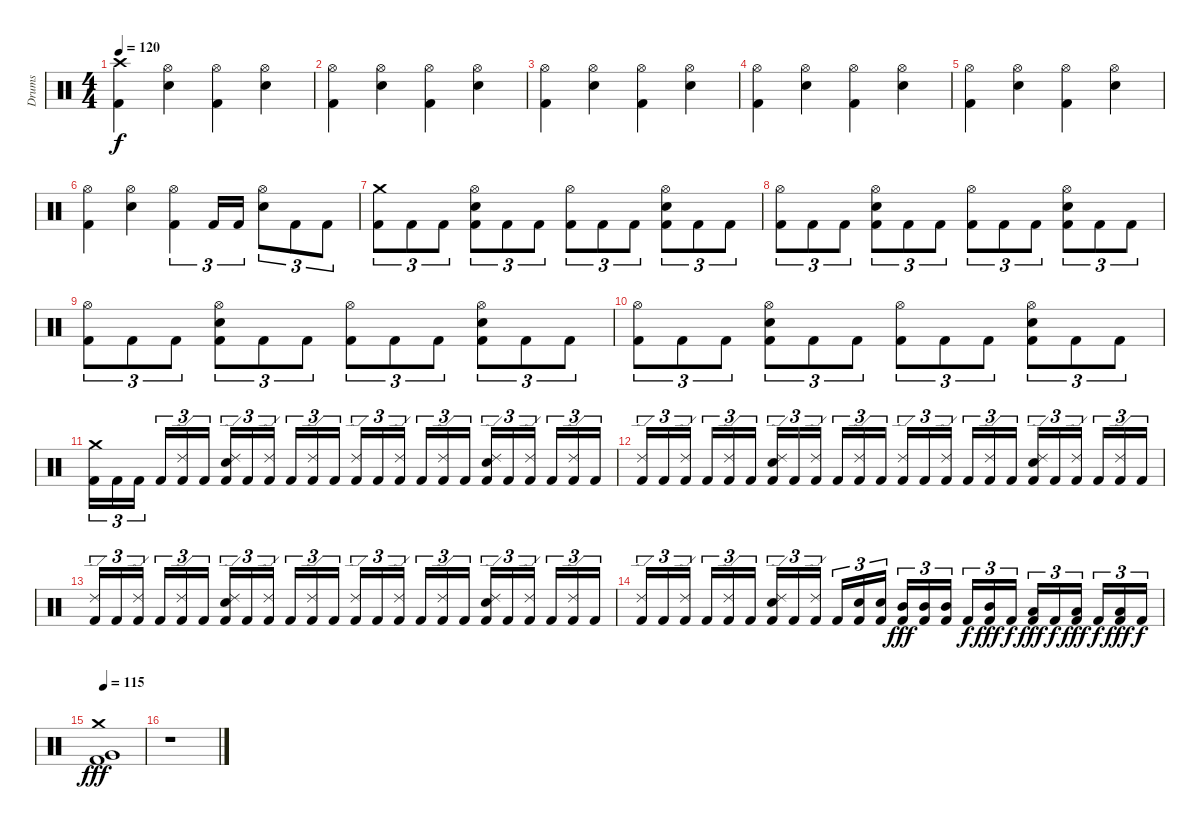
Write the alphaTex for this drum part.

\track ("Drums" "Drums") {instrument percussion}
\staff {score}
\articulation defaults
\ts (4 4)
\tempo 120
\clef neutral
\ks c
("Kick (hit) 2" "Crash high (hit)").4{dy f} ("Electric Snare (hit)" "Hi-Hat (open)").4 ("Kick (hit) 2" "Hi-Hat (open)").4 ("Electric Snare (hit)" "Hi-Hat (open)").4 |
("Kick (hit) 2" "Hi-Hat (open)").4 ("Electric Snare (hit)" "Hi-Hat (open)").4 ("Kick (hit) 2" "Hi-Hat (open)").4 ("Electric Snare (hit)" "Hi-Hat (open)").4 |
("Kick (hit) 2" "Hi-Hat (open)").4 ("Electric Snare (hit)" "Hi-Hat (open)").4 ("Kick (hit) 2" "Hi-Hat (open)").4 ("Electric Snare (hit)" "Hi-Hat (open)").4 |
("Kick (hit) 2" "Hi-Hat (open)").4 ("Electric Snare (hit)" "Hi-Hat (open)").4 ("Kick (hit) 2" "Hi-Hat (open)").4 ("Electric Snare (hit)" "Hi-Hat (open)").4 |
("Kick (hit) 2" "Hi-Hat (open)").4 ("Electric Snare (hit)" "Hi-Hat (open)").4 ("Kick (hit) 2" "Hi-Hat (open)").4 ("Electric Snare (hit)" "Hi-Hat (open)").4 |
("Kick (hit) 2" "Hi-Hat (open)").4 ("Electric Snare (hit)" "Hi-Hat (open)").4 ("Kick (hit) 2" "Hi-Hat (open)").4{tu (3 2)} "Kick (hit) 2".16{tu (3 2)} "Kick (hit) 2".16{tu (3 2)} ("Electric Snare (hit)" "Hi-Hat (open)").8{tu (3 2)} "Kick (hit) 2".8{tu (3 2)} "Kick (hit) 2".8{tu (3 2)} |
("Kick (hit) 2" "Crash medium (hit)").8{tu (3 2)} "Kick (hit) 2".8{tu (3 2)} "Kick (hit) 2".8{tu (3 2)} ("Kick (hit) 2" "Electric Snare (hit)" "Hi-Hat (open)").8{tu (3 2)} "Kick (hit) 2".8{tu (3 2)} "Kick (hit) 2".8{tu (3 2)} ("Kick (hit) 2" "Hi-Hat (open)").8{tu (3 2)} "Kick (hit) 2".8{tu (3 2)} "Kick (hit) 2".8{tu (3 2)} ("Kick (hit) 2" "Electric Snare (hit)" "Hi-Hat (open)").8{tu (3 2)} "Kick (hit) 2".8{tu (3 2)} "Kick (hit) 2".8{tu (3 2)} |
("Kick (hit) 2" "Hi-Hat (open)").8{tu (3 2)} "Kick (hit) 2".8{tu (3 2)} "Kick (hit) 2".8{tu (3 2)} ("Kick (hit) 2" "Electric Snare (hit)" "Hi-Hat (open)").8{tu (3 2)} "Kick (hit) 2".8{tu (3 2)} "Kick (hit) 2".8{tu (3 2)} ("Kick (hit) 2" "Hi-Hat (open)").8{tu (3 2)} "Kick (hit) 2".8{tu (3 2)} "Kick (hit) 2".8{tu (3 2)} ("Kick (hit) 2" "Electric Snare (hit)" "Hi-Hat (open)").8{tu (3 2)} "Kick (hit) 2".8{tu (3 2)} "Kick (hit) 2".8{tu (3 2)} |
("Kick (hit) 2" "Hi-Hat (open)").8{tu (3 2)} "Kick (hit) 2".8{tu (3 2)} "Kick (hit) 2".8{tu (3 2)} ("Kick (hit) 2" "Electric Snare (hit)" "Hi-Hat (open)").8{tu (3 2)} "Kick (hit) 2".8{tu (3 2)} "Kick (hit) 2".8{tu (3 2)} ("Kick (hit) 2" "Hi-Hat (open)").8{tu (3 2)} "Kick (hit) 2".8{tu (3 2)} "Kick (hit) 2".8{tu (3 2)} ("Kick (hit) 2" "Electric Snare (hit)" "Hi-Hat (open)").8{tu (3 2)} "Kick (hit) 2".8{tu (3 2)} "Kick (hit) 2".8{tu (3 2)} |
("Kick (hit) 2" "Hi-Hat (open)").8{tu (3 2)} "Kick (hit) 2".8{tu (3 2)} "Kick (hit) 2".8{tu (3 2)} ("Kick (hit) 2" "Electric Snare (hit)" "Hi-Hat (open)").8{tu (3 2)} "Kick (hit) 2".8{tu (3 2)} "Kick (hit) 2".8{tu (3 2)} ("Kick (hit) 2" "Hi-Hat (open)").8{tu (3 2)} "Kick (hit) 2".8{tu (3 2)} "Kick (hit) 2".8{tu (3 2)} ("Kick (hit) 2" "Electric Snare (hit)" "Hi-Hat (open)").8{tu (3 2)} "Kick (hit) 2".8{tu (3 2)} "Kick (hit) 2".8{tu (3 2)} |
("Kick (hit) 2" "Crash medium (hit)").16{tu (3 2)} "Kick (hit) 2".16{tu (3 2)} "Kick (hit) 2".16{tu (3 2)} "Kick (hit) 2".16{tu (3 2)} ("Kick (hit) 2" "Ride (edge) 2").16{tu (3 2)} "Kick (hit) 2".16{tu (3 2)} ("Kick (hit) 2" "Electric Snare (hit)" "Ride (edge) 2").16{tu (3 2)} "Kick (hit) 2".16{tu (3 2)} ("Kick (hit) 2" "Ride (edge) 2").16{tu (3 2)} "Kick (hit) 2".16{tu (3 2)} ("Kick (hit) 2" "Ride (edge) 2").16{tu (3 2)} "Kick (hit) 2".16{tu (3 2)} ("Kick (hit) 2" "Ride (edge) 2").16{tu (3 2)} "Kick (hit) 2".16{tu (3 2)} ("Kick (hit) 2" "Ride (edge) 2").16{tu (3 2)} "Kick (hit) 2".16{tu (3 2)} ("Kick (hit) 2" "Ride (edge) 2").16{tu (3 2)} "Kick (hit) 2".16{tu (3 2)} ("Kick (hit) 2" "Electric Snare (hit)" "Ride (edge) 2").16{tu (3 2)} "Kick (hit) 2".16{tu (3 2)} ("Kick (hit) 2" "Ride (edge) 2").16{tu (3 2)} "Kick (hit) 2".16{tu (3 2)} ("Kick (hit) 2" "Ride (edge) 2").16{tu (3 2)} "Kick (hit) 2".16{tu (3 2)} |
("Kick (hit) 2" "Ride (edge) 2").16{tu (3 2)} "Kick (hit) 2".16{tu (3 2)} ("Kick (hit) 2" "Ride (edge) 2").16{tu (3 2)} "Kick (hit) 2".16{tu (3 2)} ("Kick (hit) 2" "Ride (edge) 2").16{tu (3 2)} "Kick (hit) 2".16{tu (3 2)} ("Kick (hit) 2" "Electric Snare (hit)" "Ride (edge) 2").16{tu (3 2)} "Kick (hit) 2".16{tu (3 2)} ("Kick (hit) 2" "Ride (edge) 2").16{tu (3 2)} "Kick (hit) 2".16{tu (3 2)} ("Kick (hit) 2" "Ride (edge) 2").16{tu (3 2)} "Kick (hit) 2".16{tu (3 2)} ("Kick (hit) 2" "Ride (edge) 2").16{tu (3 2)} "Kick (hit) 2".16{tu (3 2)} ("Kick (hit) 2" "Ride (edge) 2").16{tu (3 2)} "Kick (hit) 2".16{tu (3 2)} ("Kick (hit) 2" "Ride (edge) 2").16{tu (3 2)} "Kick (hit) 2".16{tu (3 2)} ("Kick (hit) 2" "Electric Snare (hit)" "Ride (edge) 2").16{tu (3 2)} "Kick (hit) 2".16{tu (3 2)} ("Kick (hit) 2" "Ride (edge) 2").16{tu (3 2)} "Kick (hit) 2".16{tu (3 2)} ("Kick (hit) 2" "Ride (edge) 2").16{tu (3 2)} "Kick (hit) 2".16{tu (3 2)} |
("Kick (hit) 2" "Ride (edge) 2").16{tu (3 2)} "Kick (hit) 2".16{tu (3 2)} ("Kick (hit) 2" "Ride (edge) 2").16{tu (3 2)} "Kick (hit) 2".16{tu (3 2)} ("Kick (hit) 2" "Ride (edge) 2").16{tu (3 2)} "Kick (hit) 2".16{tu (3 2)} ("Kick (hit) 2" "Electric Snare (hit)" "Ride (edge) 2").16{tu (3 2)} "Kick (hit) 2".16{tu (3 2)} ("Kick (hit) 2" "Ride (edge) 2").16{tu (3 2)} "Kick (hit) 2".16{tu (3 2)} ("Kick (hit) 2" "Ride (edge) 2").16{tu (3 2)} "Kick (hit) 2".16{tu (3 2)} ("Kick (hit) 2" "Ride (edge) 2").16{tu (3 2)} "Kick (hit) 2".16{tu (3 2)} ("Kick (hit) 2" "Ride (edge) 2").16{tu (3 2)} "Kick (hit) 2".16{tu (3 2)} ("Kick (hit) 2" "Ride (edge) 2").16{tu (3 2)} "Kick (hit) 2".16{tu (3 2)} ("Kick (hit) 2" "Electric Snare (hit)" "Ride (edge) 2").16{tu (3 2)} "Kick (hit) 2".16{tu (3 2)} ("Kick (hit) 2" "Ride (edge) 2").16{tu (3 2)} "Kick (hit) 2".16{tu (3 2)} ("Kick (hit) 2" "Ride (edge) 2").16{tu (3 2)} "Kick (hit) 2".16{tu (3 2)} |
("Kick (hit) 2" "Ride (edge) 2").16{tu (3 2)} "Kick (hit) 2".16{tu (3 2)} ("Kick (hit) 2" "Ride (edge) 2").16{tu (3 2)} "Kick (hit) 2".16{tu (3 2)} ("Kick (hit) 2" "Ride (edge) 2").16{tu (3 2)} "Kick (hit) 2".16{tu (3 2)} ("Kick (hit) 2" "Electric Snare (hit)" "Ride (edge) 2").16{tu (3 2)} "Kick (hit) 2".16{tu (3 2)} ("Kick (hit) 2" "Ride (edge) 2").16{tu (3 2)} "Kick (hit) 2".16{tu (3 2)} ("Kick (hit) 2" "Electric Snare (hit)").16{tu (3 2)} ("Kick (hit) 2" "Electric Snare (hit)").16{tu (3 2)} ("Kick (hit) 2" "Mid Tom (hit)").16{tu (3 2) dy fff} ("Kick (hit) 2" "Mid Tom (hit)").16{tu (3 2)} ("Kick (hit) 2" "Mid Tom (hit)").16{tu (3 2)} "Kick (hit) 2".16{tu (3 2) dy f} ("Kick (hit) 2" "Mid Tom (hit)").16{tu (3 2) dy fff} "Kick (hit) 2".16{tu (3 2) dy f} ("Kick (hit) 2" "Low Tom (hit)").16{tu (3 2) dy fff} "Kick (hit) 2".16{tu (3 2) dy f} ("Kick (hit) 2" "Low Tom (hit)").16{tu (3 2) dy fff} "Kick (hit) 2".16{tu (3 2) dy f} ("Kick (hit) 2" "Low Tom (hit)").16{tu (3 2) dy fff} "Kick (hit) 2".16{tu (3 2) dy f} |
\tempo 115
("Kick (hit) 2" "Very Low Tom (hit)" "Crash medium (hit)").1{dy fff} |
r.1
